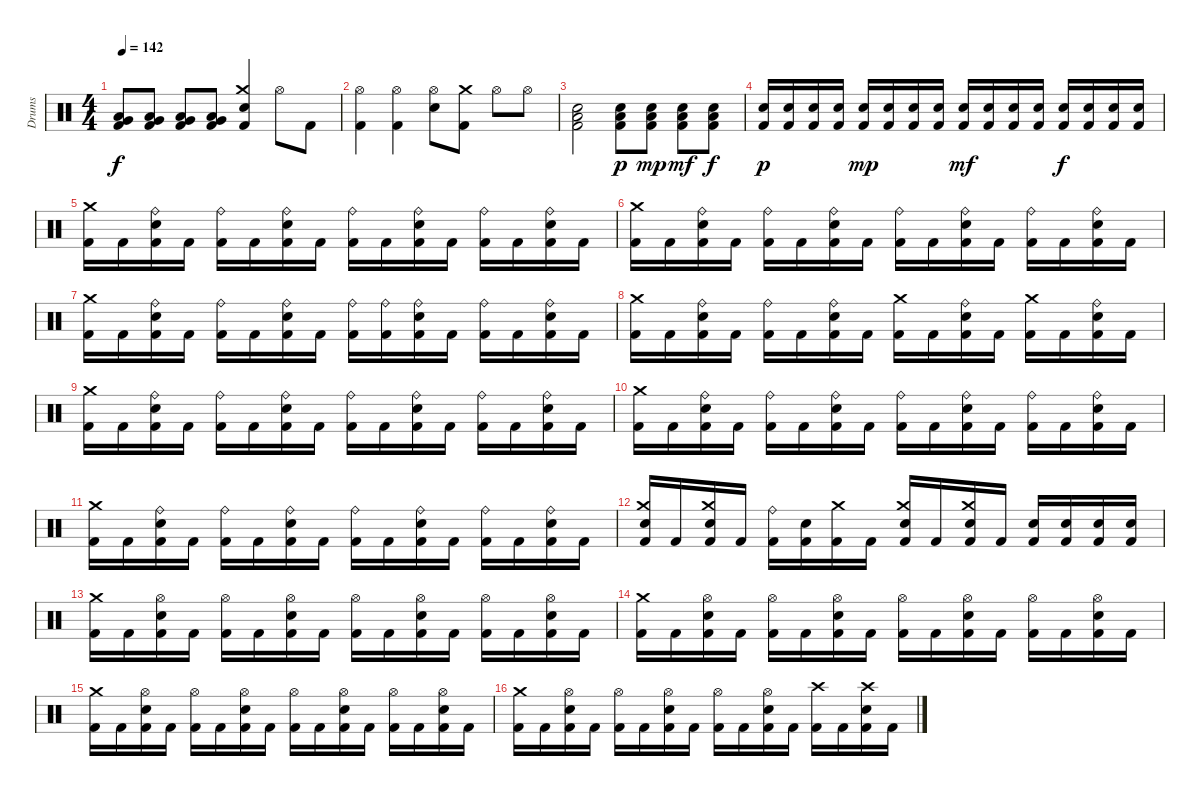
\track ("Drums" "Drums") {instrument percussion}
\staff {score}
\articulation defaults
\ts (4 4)
\tempo 142
\clef neutral
\ks c
("Low Floor Tom (hit)" "Very Low Tom (hit)" "Kick (hit) 2").8{dy f} ("Low Floor Tom (hit)" "Very Low Tom (hit)" "Kick (hit) 2").8 ("Low Floor Tom (hit)" "Very Low Tom (hit)" "Kick (hit) 2").8 ("Low Floor Tom (hit)" "Very Low Tom (hit)" "Kick (hit) 2").8 ("Crash medium (hit)" "Electric Snare (hit)" "Kick (hit) 2").4 "Hi-Hat (open)".8 "Kick (hit) 2".8 |
("Hi-Hat (open)" "Kick (hit) 2").4 ("Hi-Hat (open)" "Kick (hit) 2").4 ("Hi-Hat (open)" "Electric Snare (hit)").8 ("Crash medium (hit)" "Kick (hit) 2").8 "Hi-Hat (open)".8 "Hi-Hat (open)".8 |
("Low Floor Tom (hit)" "Electric Snare (hit)" "Kick (hit) 2").2 ("Low Floor Tom (hit)" "Electric Snare (hit)" "Kick (hit) 2").8{dy p} ("Low Floor Tom (hit)" "Electric Snare (hit)" "Kick (hit) 2").8{dy mp} ("Low Floor Tom (hit)" "Electric Snare (hit)" "Kick (hit) 2").8{dy mf} ("Low Floor Tom (hit)" "Electric Snare (hit)" "Kick (hit) 2").8{dy f} |
("Electric Snare (hit)" "Kick (hit) 2").16{dy p} ("Electric Snare (hit)" "Kick (hit) 2").16 ("Electric Snare (hit)" "Kick (hit) 2").16 ("Electric Snare (hit)" "Kick (hit) 2").16 ("Electric Snare (hit)" "Kick (hit) 2").16{dy mp} ("Electric Snare (hit)" "Kick (hit) 2").16 ("Electric Snare (hit)" "Kick (hit) 2").16 ("Electric Snare (hit)" "Kick (hit) 2").16 ("Electric Snare (hit)" "Kick (hit) 2").16{dy mf} ("Electric Snare (hit)" "Kick (hit) 2").16 ("Electric Snare (hit)" "Kick (hit) 2").16 ("Electric Snare (hit)" "Kick (hit) 2").16 ("Electric Snare (hit)" "Kick (hit) 2").16{dy f} ("Electric Snare (hit)" "Kick (hit) 2").16 ("Electric Snare (hit)" "Kick (hit) 2").16 ("Electric Snare (hit)" "Kick (hit) 2").16 |
("Crash medium (hit)" "Kick (hit) 2").16 "Kick (hit) 2".16 ("Ride (bell)" "Electric Snare (hit)" "Kick (hit) 2").16 "Kick (hit) 2".16 ("Ride (bell)" "Kick (hit) 2").16 "Kick (hit) 2".16 ("Ride (bell)" "Electric Snare (hit)" "Kick (hit) 2").16 "Kick (hit) 2".16 ("Ride (bell)" "Kick (hit) 2").16 "Kick (hit) 2".16 ("Ride (bell)" "Electric Snare (hit)" "Kick (hit) 2").16 "Kick (hit) 2".16 ("Ride (bell)" "Kick (hit) 2").16 "Kick (hit) 2".16 ("Ride (bell)" "Electric Snare (hit)" "Kick (hit) 2").16 "Kick (hit) 2".16 |
("Crash medium (hit)" "Kick (hit) 2").16 "Kick (hit) 2".16 ("Ride (bell)" "Electric Snare (hit)" "Kick (hit) 2").16 "Kick (hit) 2".16 ("Ride (bell)" "Kick (hit) 2").16 "Kick (hit) 2".16 ("Ride (bell)" "Electric Snare (hit)" "Kick (hit) 2").16 "Kick (hit) 2".16 ("Ride (bell)" "Kick (hit) 2").16 "Kick (hit) 2".16 ("Ride (bell)" "Electric Snare (hit)" "Kick (hit) 2").16 "Kick (hit) 2".16 ("Ride (bell)" "Kick (hit) 2").16 "Kick (hit) 2".16 ("Ride (bell)" "Electric Snare (hit)" "Kick (hit) 2").16 "Kick (hit) 2".16 |
("Crash medium (hit)" "Kick (hit) 2").16 "Kick (hit) 2".16 ("Ride (bell)" "Electric Snare (hit)" "Kick (hit) 2").16 "Kick (hit) 2".16 ("Ride (bell)" "Kick (hit) 2").16 "Kick (hit) 2".16 ("Ride (bell)" "Electric Snare (hit)" "Kick (hit) 2").16 "Kick (hit) 2".16 ("Ride (bell)" "Kick (hit) 2").16 ("Ride (bell)" "Kick (hit) 2").16 ("Ride (bell)" "Electric Snare (hit)" "Kick (hit) 2").16 "Kick (hit) 2".16 ("Ride (bell)" "Kick (hit) 2").16 "Kick (hit) 2".16 ("Ride (bell)" "Electric Snare (hit)" "Kick (hit) 2").16 "Kick (hit) 2".16 |
("Crash medium (hit)" "Kick (hit) 2").16 "Kick (hit) 2".16 ("Ride (bell)" "Electric Snare (hit)" "Kick (hit) 2").16 "Kick (hit) 2".16 ("Ride (bell)" "Kick (hit) 2").16 "Kick (hit) 2".16 ("Ride (bell)" "Electric Snare (hit)" "Kick (hit) 2").16 "Kick (hit) 2".16 ("Crash medium (hit)" "Kick (hit) 2").16 "Kick (hit) 2".16 ("Ride (bell)" "Electric Snare (hit)" "Kick (hit) 2").16 "Kick (hit) 2".16 ("Crash medium (hit)" "Kick (hit) 2").16 "Kick (hit) 2".16 ("Ride (bell)" "Electric Snare (hit)" "Kick (hit) 2").16 "Kick (hit) 2".16 |
("Crash medium (hit)" "Kick (hit) 2").16 "Kick (hit) 2".16 ("Ride (bell)" "Electric Snare (hit)" "Kick (hit) 2").16 "Kick (hit) 2".16 ("Ride (bell)" "Kick (hit) 2").16 "Kick (hit) 2".16 ("Ride (bell)" "Electric Snare (hit)" "Kick (hit) 2").16 "Kick (hit) 2".16 ("Ride (bell)" "Kick (hit) 2").16 "Kick (hit) 2".16 ("Ride (bell)" "Electric Snare (hit)" "Kick (hit) 2").16 "Kick (hit) 2".16 ("Ride (bell)" "Kick (hit) 2").16 "Kick (hit) 2".16 ("Ride (bell)" "Electric Snare (hit)" "Kick (hit) 2").16 "Kick (hit) 2".16 |
("Crash medium (hit)" "Kick (hit) 2").16 "Kick (hit) 2".16 ("Ride (bell)" "Electric Snare (hit)" "Kick (hit) 2").16 "Kick (hit) 2".16 ("Ride (bell)" "Kick (hit) 2").16 "Kick (hit) 2".16 ("Ride (bell)" "Electric Snare (hit)" "Kick (hit) 2").16 "Kick (hit) 2".16 ("Ride (bell)" "Kick (hit) 2").16 "Kick (hit) 2".16 ("Ride (bell)" "Electric Snare (hit)" "Kick (hit) 2").16 "Kick (hit) 2".16 ("Ride (bell)" "Kick (hit) 2").16 "Kick (hit) 2".16 ("Ride (bell)" "Electric Snare (hit)" "Kick (hit) 2").16 "Kick (hit) 2".16 |
("Crash medium (hit)" "Kick (hit) 2").16 "Kick (hit) 2".16 ("Ride (bell)" "Electric Snare (hit)" "Kick (hit) 2").16 "Kick (hit) 2".16 ("Ride (bell)" "Kick (hit) 2").16 "Kick (hit) 2".16 ("Ride (bell)" "Electric Snare (hit)" "Kick (hit) 2").16 "Kick (hit) 2".16 ("Ride (bell)" "Kick (hit) 2").16 "Kick (hit) 2".16 ("Ride (bell)" "Electric Snare (hit)" "Kick (hit) 2").16 "Kick (hit) 2".16 ("Ride (bell)" "Kick (hit) 2").16 "Kick (hit) 2".16 ("Ride (bell)" "Electric Snare (hit)" "Kick (hit) 2").16 "Kick (hit) 2".16 |
("Crash medium (hit)" "Electric Snare (hit)" "Kick (hit) 2").16 "Kick (hit) 2".16 ("Crash medium (hit)" "Electric Snare (hit)" "Kick (hit) 2").16 "Kick (hit) 2".16 ("Ride (bell)" "Kick (hit) 2").16 ("Electric Snare (hit)" "Kick (hit) 2").16 ("Crash medium (hit)" "Kick (hit) 2").16 "Kick (hit) 2".16 ("Crash medium (hit)" "Electric Snare (hit)" "Kick (hit) 2").16 "Kick (hit) 2".16 ("Crash medium (hit)" "Electric Snare (hit)" "Kick (hit) 2").16 "Kick (hit) 2".16 ("Electric Snare (hit)" "Kick (hit) 2").16 ("Electric Snare (hit)" "Kick (hit) 2").16 ("Electric Snare (hit)" "Kick (hit) 2").16 ("Electric Snare (hit)" "Kick (hit) 2").16 |
("Crash medium (hit)" "Kick (hit) 2").16 "Kick (hit) 2".16 ("Hi-Hat (open)" "Electric Snare (hit)" "Kick (hit) 2").16 "Kick (hit) 2".16 ("Hi-Hat (open)" "Kick (hit) 2").16 "Kick (hit) 2".16 ("Hi-Hat (open)" "Electric Snare (hit)" "Kick (hit) 2").16 "Kick (hit) 2".16 ("Hi-Hat (open)" "Kick (hit) 2").16 "Kick (hit) 2".16 ("Hi-Hat (open)" "Electric Snare (hit)" "Kick (hit) 2").16 "Kick (hit) 2".16 ("Hi-Hat (open)" "Kick (hit) 2").16 "Kick (hit) 2".16 ("Hi-Hat (open)" "Electric Snare (hit)" "Kick (hit) 2").16 "Kick (hit) 2".16 |
("Crash medium (hit)" "Kick (hit) 2").16 "Kick (hit) 2".16 ("Hi-Hat (open)" "Electric Snare (hit)" "Kick (hit) 2").16 "Kick (hit) 2".16 ("Hi-Hat (open)" "Kick (hit) 2").16 "Kick (hit) 2".16 ("Hi-Hat (open)" "Electric Snare (hit)" "Kick (hit) 2").16 "Kick (hit) 2".16 ("Hi-Hat (open)" "Kick (hit) 2").16 "Kick (hit) 2".16 ("Hi-Hat (open)" "Electric Snare (hit)" "Kick (hit) 2").16 "Kick (hit) 2".16 ("Hi-Hat (open)" "Kick (hit) 2").16 "Kick (hit) 2".16 ("Hi-Hat (open)" "Electric Snare (hit)" "Kick (hit) 2").16 "Kick (hit) 2".16 |
("Crash medium (hit)" "Kick (hit) 2").16 "Kick (hit) 2".16 ("Hi-Hat (open)" "Electric Snare (hit)" "Kick (hit) 2").16 "Kick (hit) 2".16 ("Hi-Hat (open)" "Kick (hit) 2").16 "Kick (hit) 2".16 ("Hi-Hat (open)" "Electric Snare (hit)" "Kick (hit) 2").16 "Kick (hit) 2".16 ("Hi-Hat (open)" "Kick (hit) 2").16 "Kick (hit) 2".16 ("Hi-Hat (open)" "Electric Snare (hit)" "Kick (hit) 2").16 "Kick (hit) 2".16 ("Hi-Hat (open)" "Kick (hit) 2").16 "Kick (hit) 2".16 ("Hi-Hat (open)" "Electric Snare (hit)" "Kick (hit) 2").16 "Kick (hit) 2".16 |
("Crash medium (hit)" "Kick (hit) 2").16 "Kick (hit) 2".16 ("Hi-Hat (open)" "Electric Snare (hit)" "Kick (hit) 2").16 "Kick (hit) 2".16 ("Hi-Hat (open)" "Kick (hit) 2").16 "Kick (hit) 2".16 ("Hi-Hat (open)" "Electric Snare (hit)" "Kick (hit) 2").16 "Kick (hit) 2".16 ("Hi-Hat (open)" "Kick (hit) 2").16 "Kick (hit) 2".16 ("Hi-Hat (open)" "Electric Snare (hit)" "Kick (hit) 2").16 "Kick (hit) 2".16 ("Crash high (hit)" "Kick (hit) 2").16 "Kick (hit) 2".16 ("Crash high (hit)" "Electric Snare (hit)" "Kick (hit) 2").16 "Kick (hit) 2".16
